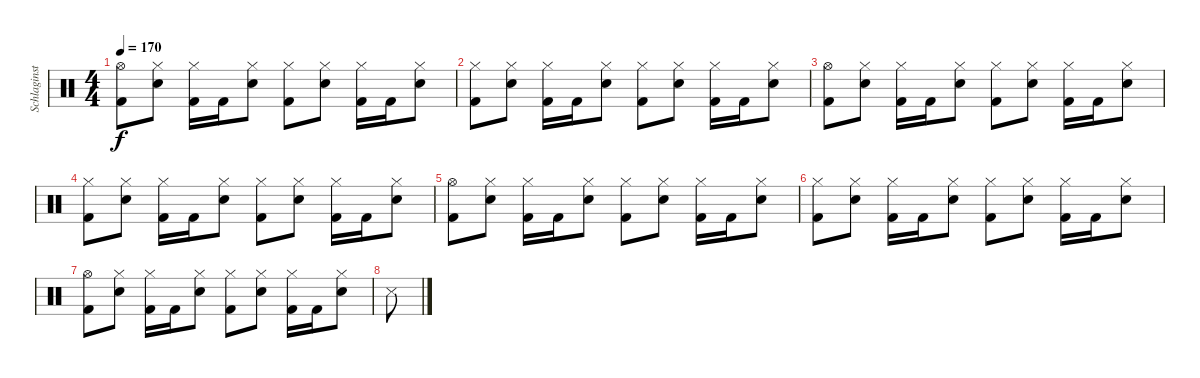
\track ("Schlaginstrumente - Auswahl" "Schlaginst") {instrument percussion}
\staff {score}
\articulation defaults
\ts (4 4)
\tempo 170
\clef neutral
\ks c
("Hi-Hat (open)" "Kick (hit) 2").8{dy f} ("Hi-Hat (closed)" "Snare (hit) 2").8 ("Hi-Hat (closed)" "Kick (hit) 2").16 "Kick (hit) 2".16 ("Hi-Hat (closed)" "Snare (hit) 2").8 ("Hi-Hat (closed)" "Kick (hit) 2").8 ("Hi-Hat (closed)" "Snare (hit) 2").8 ("Hi-Hat (closed)" "Kick (hit) 2").16 "Kick (hit) 2".16 ("Hi-Hat (closed)" "Snare (hit) 2").8 |
("Hi-Hat (closed)" "Kick (hit) 2").8 ("Hi-Hat (closed)" "Snare (hit) 2").8 ("Hi-Hat (closed)" "Kick (hit) 2").16 "Kick (hit) 2".16 ("Hi-Hat (closed)" "Snare (hit) 2").8 ("Hi-Hat (closed)" "Kick (hit) 2").8 ("Hi-Hat (closed)" "Snare (hit) 2").8 ("Hi-Hat (closed)" "Kick (hit) 2").16 "Kick (hit) 2".16 ("Hi-Hat (closed)" "Snare (hit) 2").8 |
("Hi-Hat (open)" "Kick (hit) 2").8 ("Hi-Hat (closed)" "Snare (hit) 2").8 ("Hi-Hat (closed)" "Kick (hit) 2").16 "Kick (hit) 2".16 ("Hi-Hat (closed)" "Snare (hit) 2").8 ("Hi-Hat (closed)" "Kick (hit) 2").8 ("Hi-Hat (closed)" "Snare (hit) 2").8 ("Hi-Hat (closed)" "Kick (hit) 2").16 "Kick (hit) 2".16 ("Hi-Hat (closed)" "Snare (hit) 2").8 |
("Hi-Hat (closed)" "Kick (hit) 2").8 ("Hi-Hat (closed)" "Snare (hit) 2").8 ("Hi-Hat (closed)" "Kick (hit) 2").16 "Kick (hit) 2".16 ("Hi-Hat (closed)" "Snare (hit) 2").8 ("Hi-Hat (closed)" "Kick (hit) 2").8 ("Hi-Hat (closed)" "Snare (hit) 2").8 ("Hi-Hat (closed)" "Kick (hit) 2").16 "Kick (hit) 2".16 ("Hi-Hat (closed)" "Snare (hit) 2").8 |
("Hi-Hat (open)" "Kick (hit) 2").8 ("Hi-Hat (closed)" "Snare (hit) 2").8 ("Hi-Hat (closed)" "Kick (hit) 2").16 "Kick (hit) 2".16 ("Hi-Hat (closed)" "Snare (hit) 2").8 ("Hi-Hat (closed)" "Kick (hit) 2").8 ("Hi-Hat (closed)" "Snare (hit) 2").8 ("Hi-Hat (closed)" "Kick (hit) 2").16 "Kick (hit) 2".16 ("Hi-Hat (closed)" "Snare (hit) 2").8 |
("Hi-Hat (closed)" "Kick (hit) 2").8 ("Hi-Hat (closed)" "Snare (hit) 2").8 ("Hi-Hat (closed)" "Kick (hit) 2").16 "Kick (hit) 2".16 ("Hi-Hat (closed)" "Snare (hit) 2").8 ("Hi-Hat (closed)" "Kick (hit) 2").8 ("Hi-Hat (closed)" "Snare (hit) 2").8 ("Hi-Hat (closed)" "Kick (hit) 2").16 "Kick (hit) 2".16 ("Hi-Hat (closed)" "Snare (hit) 2").8 |
("Hi-Hat (open)" "Kick (hit) 2").8 ("Hi-Hat (closed)" "Snare (hit) 2").8 ("Hi-Hat (closed)" "Kick (hit) 2").16 "Kick (hit) 2".16 ("Hi-Hat (closed)" "Snare (hit) 2").8 ("Hi-Hat (closed)" "Kick (hit) 2").8 ("Hi-Hat (closed)" "Snare (hit) 2").8 ("Hi-Hat (closed)" "Kick (hit) 2").16 "Kick (hit) 2".16 ("Hi-Hat (closed)" "Snare (hit) 2").8 |
"Snare (side stick) 3".8
